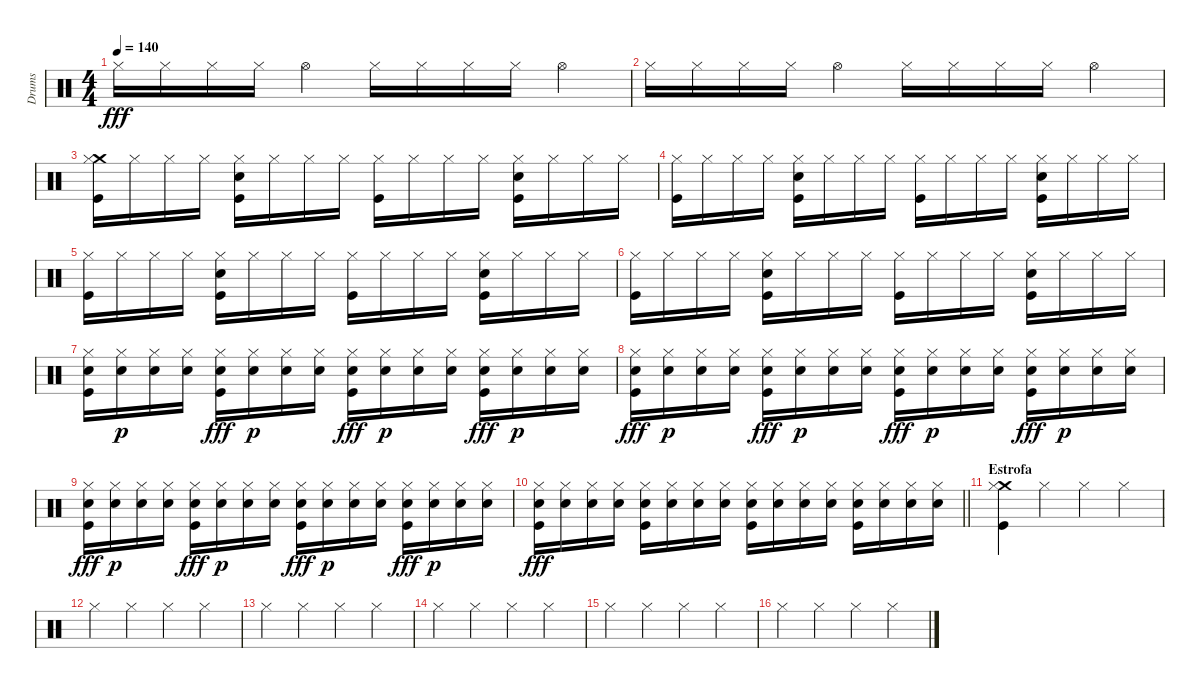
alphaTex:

\track ("Drums" "Drums") {instrument percussion}
\staff {score}
\articulation defaults
\ts (4 4)
\tempo 140
\clef neutral
\ks c "Hi-Hat (closed)".16{dy fff} "Hi-Hat (closed)".16 "Hi-Hat (closed)".16 "Hi-Hat (closed)".16 "Hi-Hat (open)".4 "Hi-Hat (closed)".16 "Hi-Hat (closed)".16 "Hi-Hat (closed)".16 "Hi-Hat (closed)".16 "Hi-Hat (open)".4
|
"Hi-Hat (closed)".16 "Hi-Hat (closed)".16 "Hi-Hat (closed)".16 "Hi-Hat (closed)".16 "Hi-Hat (open)".4 "Hi-Hat (closed)".16 "Hi-Hat (closed)".16 "Hi-Hat (closed)".16 "Hi-Hat (closed)".16 "Hi-Hat (open)".4 |
("Crash medium (hit)" "Hi-Hat (closed)" "Kick (hit)").16 "Hi-Hat (closed)".16 "Hi-Hat (closed)".16 "Hi-Hat (closed)".16 ("Hi-Hat (closed)" "Electric Snare (hit)" "Kick (hit)").16 "Hi-Hat (closed)".16 "Hi-Hat (closed)".16 "Hi-Hat (closed)".16 ("Hi-Hat (closed)" "Kick (hit)").16 "Hi-Hat (closed)".16 "Hi-Hat (closed)".16 "Hi-Hat (closed)".16 ("Hi-Hat (closed)" "Electric Snare (hit)" "Kick (hit)").16 "Hi-Hat (closed)".16 "Hi-Hat (closed)".16 "Hi-Hat (closed)".16 |
("Hi-Hat (closed)" "Kick (hit)").16 "Hi-Hat (closed)".16 "Hi-Hat (closed)".16 "Hi-Hat (closed)".16 ("Hi-Hat (closed)" "Electric Snare (hit)" "Kick (hit)").16 "Hi-Hat (closed)".16 "Hi-Hat (closed)".16 "Hi-Hat (closed)".16 ("Hi-Hat (closed)" "Kick (hit)").16 "Hi-Hat (closed)".16 "Hi-Hat (closed)".16 "Hi-Hat (closed)".16 ("Hi-Hat (closed)" "Electric Snare (hit)" "Kick (hit)").16 "Hi-Hat (closed)".16 "Hi-Hat (closed)".16 "Hi-Hat (closed)".16 |
("Hi-Hat (closed)" "Kick (hit)").16 "Hi-Hat (closed)".16 "Hi-Hat (closed)".16 "Hi-Hat (closed)".16 ("Hi-Hat (closed)" "Electric Snare (hit)" "Kick (hit)").16 "Hi-Hat (closed)".16 "Hi-Hat (closed)".16 "Hi-Hat (closed)".16 ("Hi-Hat (closed)" "Kick (hit)").16 "Hi-Hat (closed)".16 "Hi-Hat (closed)".16 "Hi-Hat (closed)".16 ("Hi-Hat (closed)" "Electric Snare (hit)" "Kick (hit)").16 "Hi-Hat (closed)".16 "Hi-Hat (closed)".16 "Hi-Hat (closed)".16 |
("Hi-Hat (closed)" "Kick (hit)").16 "Hi-Hat (closed)".16 "Hi-Hat (closed)".16 "Hi-Hat (closed)".16 ("Hi-Hat (closed)" "Electric Snare (hit)" "Kick (hit)").16 "Hi-Hat (closed)".16 "Hi-Hat (closed)".16 "Hi-Hat (closed)".16 ("Hi-Hat (closed)" "Kick (hit)").16 "Hi-Hat (closed)".16 "Hi-Hat (closed)".16 "Hi-Hat (closed)".16 ("Hi-Hat (closed)" "Electric Snare (hit)" "Kick (hit)").16 "Hi-Hat (closed)".16 "Hi-Hat (closed)".16 "Hi-Hat (closed)".16 |
("Hi-Hat (closed)" "Electric Snare (hit)" "Kick (hit)").16 ("Hi-Hat (closed)" "Electric Snare (hit)").16{dy p} ("Hi-Hat (closed)" "Electric Snare (hit)").16 ("Hi-Hat (closed)" "Electric Snare (hit)").16 ("Hi-Hat (closed)" "Electric Snare (hit)" "Kick (hit)").16{dy fff} ("Hi-Hat (closed)" "Electric Snare (hit)").16{dy p} ("Hi-Hat (closed)" "Electric Snare (hit)").16 ("Hi-Hat (closed)" "Electric Snare (hit)").16 ("Hi-Hat (closed)" "Electric Snare (hit)" "Kick (hit)").16{dy fff} ("Hi-Hat (closed)" "Electric Snare (hit)").16{dy p} ("Hi-Hat (closed)" "Electric Snare (hit)").16 ("Hi-Hat (closed)" "Electric Snare (hit)").16 ("Hi-Hat (closed)" "Electric Snare (hit)" "Kick (hit)").16{dy fff} ("Hi-Hat (closed)" "Electric Snare (hit)").16{dy p} ("Hi-Hat (closed)" "Electric Snare (hit)").16 ("Hi-Hat (closed)" "Electric Snare (hit)").16 |
("Hi-Hat (closed)" "Electric Snare (hit)" "Kick (hit)").16{dy fff} ("Hi-Hat (closed)" "Electric Snare (hit)").16{dy p} ("Hi-Hat (closed)" "Electric Snare (hit)").16 ("Hi-Hat (closed)" "Electric Snare (hit)").16 ("Hi-Hat (closed)" "Electric Snare (hit)" "Kick (hit)").16{dy fff} ("Hi-Hat (closed)" "Electric Snare (hit)").16{dy p} ("Hi-Hat (closed)" "Electric Snare (hit)").16 ("Hi-Hat (closed)" "Electric Snare (hit)").16 ("Hi-Hat (closed)" "Electric Snare (hit)" "Kick (hit)").16{dy fff} ("Hi-Hat (closed)" "Electric Snare (hit)").16{dy p} ("Hi-Hat (closed)" "Electric Snare (hit)").16 ("Hi-Hat (closed)" "Electric Snare (hit)").16 ("Hi-Hat (closed)" "Electric Snare (hit)" "Kick (hit)").16{dy fff} ("Hi-Hat (closed)" "Electric Snare (hit)").16{dy p} ("Hi-Hat (closed)" "Electric Snare (hit)").16 ("Hi-Hat (closed)" "Electric Snare (hit)").16 |
("Hi-Hat (closed)" "Electric Snare (hit)" "Kick (hit)").16{dy fff} ("Hi-Hat (closed)" "Electric Snare (hit)").16{dy p} ("Hi-Hat (closed)" "Electric Snare (hit)").16 ("Hi-Hat (closed)" "Electric Snare (hit)").16 ("Hi-Hat (closed)" "Electric Snare (hit)" "Kick (hit)").16{dy fff} ("Hi-Hat (closed)" "Electric Snare (hit)").16{dy p} ("Hi-Hat (closed)" "Electric Snare (hit)").16 ("Hi-Hat (closed)" "Electric Snare (hit)").16 ("Hi-Hat (closed)" "Electric Snare (hit)" "Kick (hit)").16{dy fff} ("Hi-Hat (closed)" "Electric Snare (hit)").16{dy p} ("Hi-Hat (closed)" "Electric Snare (hit)").16 ("Hi-Hat (closed)" "Electric Snare (hit)").16 ("Hi-Hat (closed)" "Electric Snare (hit)" "Kick (hit)").16{dy fff} ("Hi-Hat (closed)" "Electric Snare (hit)").16{dy p} ("Hi-Hat (closed)" "Electric Snare (hit)").16 ("Hi-Hat (closed)" "Electric Snare (hit)").16 |
\barLineRight lightlight
("Hi-Hat (closed)" "Electric Snare (hit)" "Kick (hit)").16{dy fff} ("Hi-Hat (closed)" "Electric Snare (hit)").16 ("Hi-Hat (closed)" "Electric Snare (hit)").16 ("Hi-Hat (closed)" "Electric Snare (hit)").16 ("Hi-Hat (closed)" "Electric Snare (hit)" "Kick (hit)").16 ("Hi-Hat (closed)" "Electric Snare (hit)").16 ("Hi-Hat (closed)" "Electric Snare (hit)").16 ("Hi-Hat (closed)" "Electric Snare (hit)").16 ("Hi-Hat (closed)" "Electric Snare (hit)" "Kick (hit)").16 ("Hi-Hat (closed)" "Electric Snare (hit)").16 ("Hi-Hat (closed)" "Electric Snare (hit)").16 ("Hi-Hat (closed)" "Electric Snare (hit)").16 ("Hi-Hat (closed)" "Electric Snare (hit)" "Kick (hit)").16 ("Hi-Hat (closed)" "Electric Snare (hit)").16 ("Hi-Hat (closed)" "Electric Snare (hit)").16 ("Hi-Hat (closed)" "Electric Snare (hit)").16 |
\section ("" "Estrofa")
("Crash medium (hit)" "Hi-Hat (closed)" "Kick (hit)").4 "Hi-Hat (closed)".4 "Hi-Hat (closed)".4 "Hi-Hat (closed)".4 |
"Hi-Hat (closed)".4 "Hi-Hat (closed)".4 "Hi-Hat (closed)".4 "Hi-Hat (closed)".4 |
"Hi-Hat (closed)".4 "Hi-Hat (closed)".4 "Hi-Hat (closed)".4 "Hi-Hat (closed)".4 |
"Hi-Hat (closed)".4 "Hi-Hat (closed)".4 "Hi-Hat (closed)".4 "Hi-Hat (closed)".4 |
"Hi-Hat (closed)".4 "Hi-Hat (closed)".4 "Hi-Hat (closed)".4 "Hi-Hat (closed)".4 |
"Hi-Hat (closed)".4 "Hi-Hat (closed)".4 "Hi-Hat (closed)".4 "Hi-Hat (closed)".4
